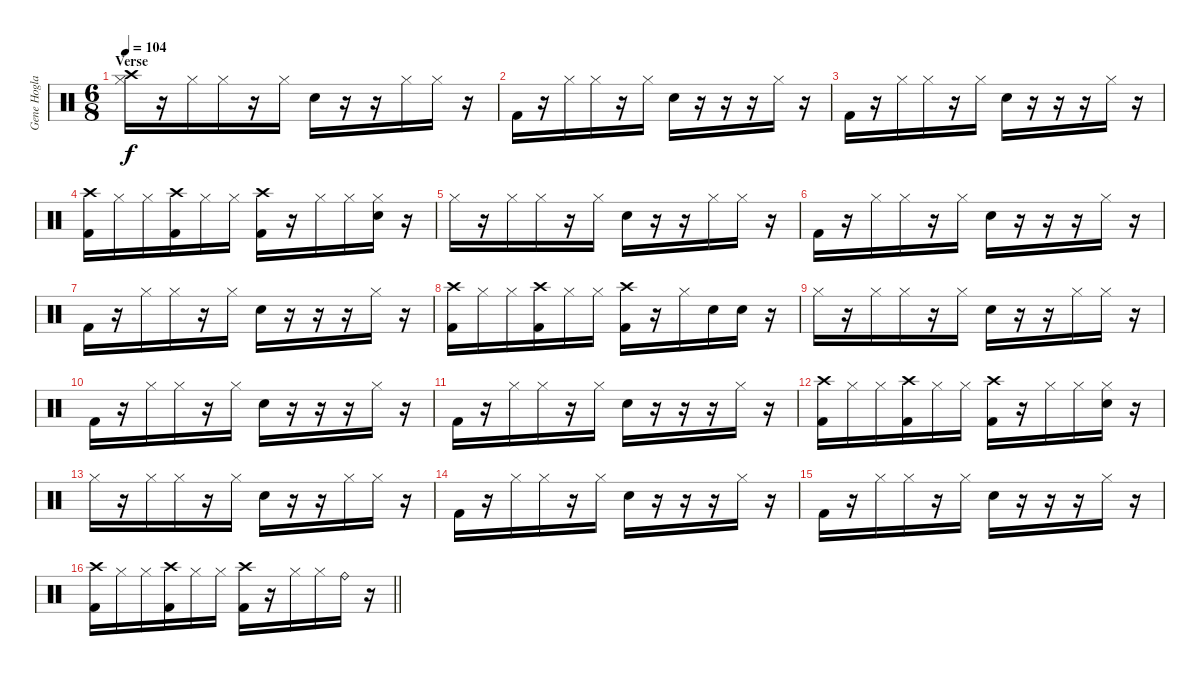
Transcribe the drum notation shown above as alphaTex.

\track ("Gene Hoglan" "Gene Hogla") {instrument percussion}
\staff {score}
\articulation defaults
\ts (6 8)
\section ("" "Verse")
\tempo 104
\clef neutral
\ks c
("Hi-Hat (closed)" "Crash high (hit)").16{dy f} r.16 "Hi-Hat (closed)".16 "Hi-Hat (closed)".16 r.16 "Hi-Hat (closed)".16 "Snare (hit) 2".16 r.16 r.16 "Hi-Hat (closed)".16 "Hi-Hat (closed)".16 r.16 |
"Kick (hit) 2".16 r.16 "Hi-Hat (closed)".16 "Hi-Hat (closed)".16 r.16 "Hi-Hat (closed)".16 "Snare (hit) 2".16 r.16 r.16 r.16 "Hi-Hat (closed)".16 r.16 |
"Kick (hit) 2".16 r.16 "Hi-Hat (closed)".16 "Hi-Hat (closed)".16 r.16 "Hi-Hat (closed)".16 "Snare (hit) 2".16 r.16 r.16 r.16 "Hi-Hat (closed)".16 r.16 |
("Crash high (hit)" "Kick (hit) 2").16 "Hi-Hat (closed)".16 "Hi-Hat (closed)".16 ("Crash high (hit)" "Kick (hit) 2").16 "Hi-Hat (closed)".16 "Hi-Hat (closed)".16 ("Crash high (hit)" "Kick (hit) 2").16 r.16 "Hi-Hat (closed)".16 "Hi-Hat (closed)".16 ("Hi-Hat (closed)" "Snare (hit) 2").16 r.16 |
"Hi-Hat (closed)".16 r.16 "Hi-Hat (closed)".16 "Hi-Hat (closed)".16 r.16 "Hi-Hat (closed)".16 "Snare (hit) 2".16 r.16 r.16 "Hi-Hat (closed)".16 "Hi-Hat (closed)".16 r.16 |
"Kick (hit) 2".16 r.16 "Hi-Hat (closed)".16 "Hi-Hat (closed)".16 r.16 "Hi-Hat (closed)".16 "Snare (hit) 2".16 r.16 r.16 r.16 "Hi-Hat (closed)".16 r.16 |
"Kick (hit) 2".16 r.16 "Hi-Hat (closed)".16 "Hi-Hat (closed)".16 r.16 "Hi-Hat (closed)".16 "Snare (hit) 2".16 r.16 r.16 r.16 "Hi-Hat (closed)".16 r.16 |
("Crash high (hit)" "Kick (hit) 2").16 "Hi-Hat (closed)".16 "Hi-Hat (closed)".16 ("Crash high (hit)" "Kick (hit) 2").16 "Hi-Hat (closed)".16 "Hi-Hat (closed)".16 ("Crash high (hit)" "Kick (hit) 2").16 r.16 "Hi-Hat (closed)".16 "Snare (hit) 2".16 "Snare (hit) 2".16 r.16 |
"Hi-Hat (closed)".16 r.16 "Hi-Hat (closed)".16 "Hi-Hat (closed)".16 r.16 "Hi-Hat (closed)".16 "Snare (hit) 2".16 r.16 r.16 "Hi-Hat (closed)".16 "Hi-Hat (closed)".16 r.16 |
"Kick (hit) 2".16 r.16 "Hi-Hat (closed)".16 "Hi-Hat (closed)".16 r.16 "Hi-Hat (closed)".16 "Snare (hit) 2".16 r.16 r.16 r.16 "Hi-Hat (closed)".16 r.16 |
"Kick (hit) 2".16 r.16 "Hi-Hat (closed)".16 "Hi-Hat (closed)".16 r.16 "Hi-Hat (closed)".16 "Snare (hit) 2".16 r.16 r.16 r.16 "Hi-Hat (closed)".16 r.16 |
("Crash high (hit)" "Kick (hit) 2").16 "Hi-Hat (closed)".16 "Hi-Hat (closed)".16 ("Crash high (hit)" "Kick (hit) 2").16 "Hi-Hat (closed)".16 "Hi-Hat (closed)".16 ("Crash high (hit)" "Kick (hit) 2").16 r.16 "Hi-Hat (closed)".16 "Hi-Hat (closed)".16 ("Hi-Hat (closed)" "Snare (hit) 2").16 r.16 |
"Hi-Hat (closed)".16 r.16 "Hi-Hat (closed)".16 "Hi-Hat (closed)".16 r.16 "Hi-Hat (closed)".16 "Snare (hit) 2".16 r.16 r.16 "Hi-Hat (closed)".16 "Hi-Hat (closed)".16 r.16 |
"Kick (hit) 2".16 r.16 "Hi-Hat (closed)".16 "Hi-Hat (closed)".16 r.16 "Hi-Hat (closed)".16 "Snare (hit) 2".16 r.16 r.16 r.16 "Hi-Hat (closed)".16 r.16 |
"Kick (hit) 2".16 r.16 "Hi-Hat (closed)".16 "Hi-Hat (closed)".16 r.16 "Hi-Hat (closed)".16 "Snare (hit) 2".16 r.16 r.16 r.16 "Hi-Hat (closed)".16 r.16 |
\barLineRight lightlight
("Crash high (hit)" "Kick (hit) 2").16 "Hi-Hat (closed)".16 "Hi-Hat (closed)".16 ("Crash high (hit)" "Kick (hit) 2").16 "Hi-Hat (closed)".16 "Hi-Hat (closed)".16 ("Crash high (hit)" "Kick (hit) 2").16 r.16 "Hi-Hat (closed)".16 "Hi-Hat (closed)".16 "Ride (bell)".16 r.16
